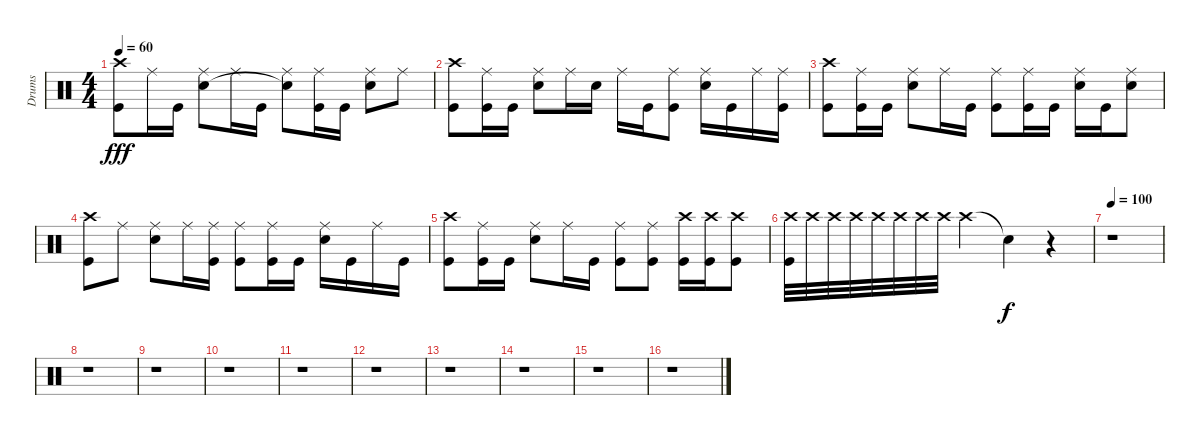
\track ("Drums" "Drums") {instrument percussion}
\staff {score}
\articulation defaults
\ts (4 4)
\tempo 60
\clef neutral
\ks c
("Crash high (hit)" "Kick (hit)").8{dy fff} "Ride (middle)".16 "Kick (hit)".16 ("Ride (middle)" "Snare (hit) 2").8 "Ride (middle)".16 "Kick (hit)".16 ("Ride (middle)" "Snare (hit)"{t}).8 ("Ride (middle)" "Kick (hit)").16 "Kick (hit)".16 ("Ride (middle)" "Snare (hit) 2").8 "Ride (middle)".8 |
("Crash high (hit)" "Kick (hit)").8 ("Ride (middle)" "Kick (hit)").16 "Kick (hit)".16 ("Ride (middle)" "Snare (hit) 2").8 "Ride (middle)".16 "Snare (hit) 2".16 "Ride (middle)".16 "Kick (hit)".16 ("Ride (middle)" "Kick (hit)").8 ("Ride (middle)" "Snare (hit) 2").16 "Kick (hit)".16 "Ride (middle)".16 ("Ride (middle)" "Kick (hit)").16 |
("Crash high (hit)" "Kick (hit)").8 ("Ride (middle)" "Kick (hit)").16 "Kick (hit)".16 ("Ride (middle)" "Snare (hit) 2").8 "Ride (middle)".16 "Kick (hit)".16 ("Ride (middle)" "Kick (hit)").8 ("Ride (middle)" "Kick (hit)").16 "Kick (hit)".16 ("Ride (middle)" "Snare (hit) 2").16 "Kick (hit)".16 ("Ride (middle)" "Snare (hit) 2").8 |
("Crash high (hit)" "Kick (hit)").8 "Ride (middle)".8 ("Ride (middle)" "Snare (hit) 2").8 "Ride (middle)".16 ("Ride (middle)" "Kick (hit)").16 ("Ride (middle)" "Kick (hit)").8 ("Ride (middle)" "Kick (hit)").16 "Kick (hit)".16 ("Ride (middle)" "Snare (hit) 2").16 "Kick (hit)".16 "Ride (middle)".16 "Kick (hit)".16 |
("Crash high (hit)" "Kick (hit)").8 ("Ride (middle)" "Kick (hit)").16 "Kick (hit)".16 ("Ride (middle)" "Snare (hit) 2").8 "Ride (middle)".16 "Kick (hit)".16 ("Ride (middle)" "Kick (hit)").8 ("Ride (middle)" "Kick (hit)").8 ("Crash high (hit)" "Kick (hit)").16 ("Crash high (hit)" "Kick (hit)").16 ("Crash high (hit)" "Kick (hit)").8 |
("Crash high (hit)" "Kick (hit)").32 "Crash high (hit)".32 "Crash high (hit)".32 "Crash high (hit)".32 "Crash high (hit)".32 "Crash high (hit)".32 "Crash high (hit)".32 "Crash high (hit)".32 "Crash high (hit)".4 "Snare (hit)"{t}.4{dy f} r.4 |
\tempo 100
r.1 |
r.1 |
r.1 |
r.1 |
r.1 |
r.1 |
r.1 |
r.1 |
r.1 |
r.1
